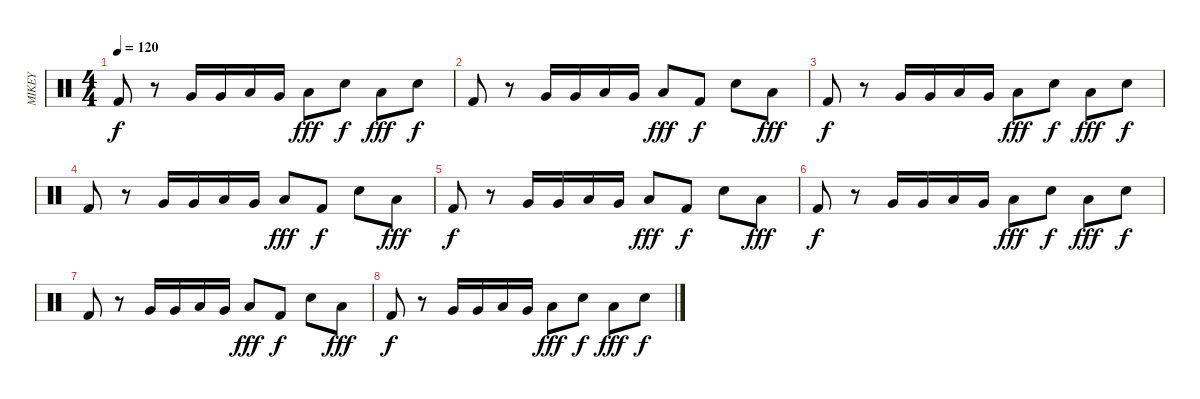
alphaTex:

\track ("MIKEY" "MIKEY") {instrument percussion}
\staff {score}
\articulation defaults
\ts (4 4)
\tempo 120
\clef neutral
\ks c "Kick (hit) 2".8{dy f}
r.8 "Very Low Tom (hit)".16 "Very Low Tom (hit)".16 "Low Tom (hit)".16 "Very Low Tom (hit)".16 "Low Floor Tom (hit)".8{dy fff} "Electric Snare (hit)".8{dy f} "Low Floor Tom (hit)".8{dy fff} "Electric Snare (hit)".8{dy f} |
"Kick (hit) 2".8 r.8 "Very Low Tom (hit)".16 "Very Low Tom (hit)".16 "Low Tom (hit)".16 "Very Low Tom (hit)".16 "Low Floor Tom (hit)".8{dy fff} "Kick (hit) 2".8{dy f} "Snare (hit) 2".8 "Low Floor Tom (hit)".8{dy fff} |
"Kick (hit) 2".8{dy f} r.8 "Very Low Tom (hit)".16 "Very Low Tom (hit)".16 "Low Tom (hit)".16 "Very Low Tom (hit)".16 "Low Floor Tom (hit)".8{dy fff} "Electric Snare (hit)".8{dy f} "Low Floor Tom (hit)".8{dy fff} "Electric Snare (hit)".8{dy f} |
"Kick (hit) 2".8{volume 6} r.8 "Very Low Tom (hit)".16 "Very Low Tom (hit)".16 "Low Tom (hit)".16 "Very Low Tom (hit)".16 "Low Floor Tom (hit)".8{dy fff} "Kick (hit) 2".8{dy f} "Snare (hit) 2".8 "Low Floor Tom (hit)".8{dy fff} |
"Kick (hit) 2".8{dy f} r.8 "Very Low Tom (hit)".16 "Very Low Tom (hit)".16 "Low Tom (hit)".16 "Very Low Tom (hit)".16 "Low Floor Tom (hit)".8{dy fff} "Kick (hit) 2".8{dy f} "Snare (hit) 2".8 "Low Floor Tom (hit)".8{dy fff} |
"Kick (hit) 2".8{dy f} r.8 "Very Low Tom (hit)".16 "Very Low Tom (hit)".16 "Low Tom (hit)".16 "Very Low Tom (hit)".16 "Low Floor Tom (hit)".8{dy fff} "Electric Snare (hit)".8{dy f} "Low Floor Tom (hit)".8{dy fff} "Electric Snare (hit)".8{dy f} |
"Kick (hit) 2".8 r.8 "Very Low Tom (hit)".16 "Very Low Tom (hit)".16 "Low Tom (hit)".16 "Very Low Tom (hit)".16 "Low Floor Tom (hit)".8{dy fff} "Kick (hit) 2".8{dy f} "Snare (hit) 2".8 "Low Floor Tom (hit)".8{dy fff} |
"Kick (hit) 2".8{dy f} r.8 "Very Low Tom (hit)".16 "Very Low Tom (hit)".16 "Low Tom (hit)".16 "Very Low Tom (hit)".16 "Low Floor Tom (hit)".8{dy fff} "Electric Snare (hit)".8{dy f} "Low Floor Tom (hit)".8{dy fff} "Electric Snare (hit)".8{dy f}
